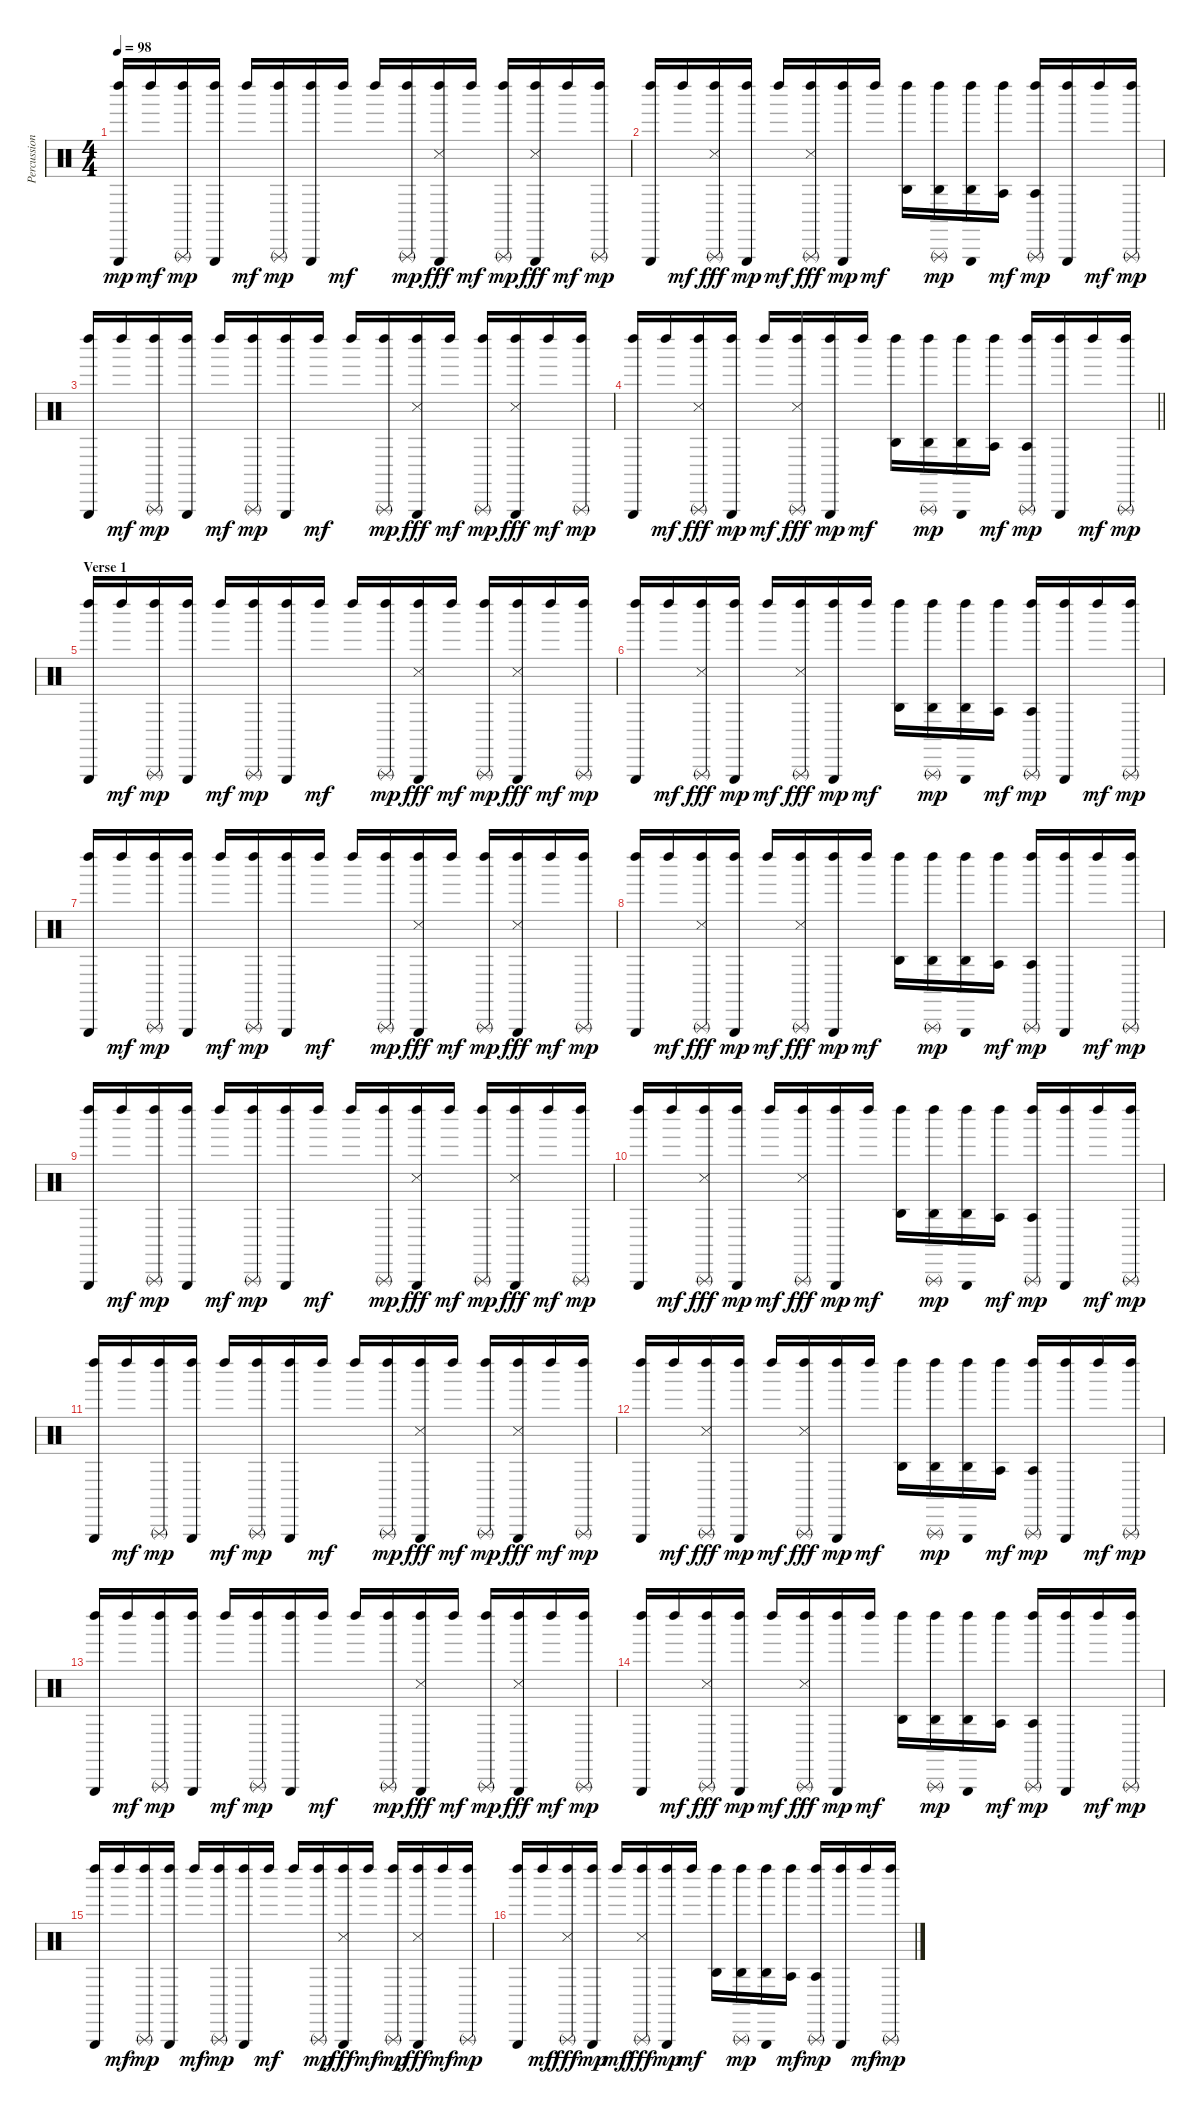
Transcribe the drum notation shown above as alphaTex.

\track ("Percussions (Dr-0)" "Percussion") {instrument percussion}
\staff {score}
\articulation defaults
\ts (4 4)
\tempo 98
\clef neutral
\ks c
("Left Maraca (hit)" "Triangle (hit)").16{dy mp} "Left Maraca (hit)".16{dy mf} ("Left Maraca (hit)" "Triangle (rnute)").16{dy mp} ("Left Maraca (hit)" "Triangle (hit)").16 "Left Maraca (hit)".16{dy mf} ("Left Maraca (hit)" "Triangle (rnute)").16{dy mp} ("Left Maraca (hit)" "Triangle (hit)").16 "Left Maraca (hit)".16{dy mf} "Left Maraca (hit)".16 ("Left Maraca (hit)" "Triangle (rnute)").16{dy mp} ("Left Maraca (hit)" "Triangle (hit)" "Snare (side stick) 3").16{dy fff} "Left Maraca (hit)".16{dy mf} ("Left Maraca (hit)" "Triangle (rnute)").16{dy mp} ("Left Maraca (hit)" "Triangle (hit)" "Snare (side stick) 3").16{dy fff} "Left Maraca (hit)".16{dy mf} ("Left Maraca (hit)" "Triangle (rnute)").16{dy mp} |
("Left Maraca (hit)" "Triangle (hit)").16 "Left Maraca (hit)".16{dy mf} ("Left Maraca (hit)" "Triangle (rnute)" "Snare (side stick) 3").16{dy fff} ("Left Maraca (hit)" "Triangle (hit)").16{dy mp} "Left Maraca (hit)".16{dy mf} ("Left Maraca (hit)" "Triangle (rnute)" "Snare (side stick) 3").16{dy fff} ("Left Maraca (hit)" "Triangle (hit)").16{dy mp} "Left Maraca (hit)".16{dy mf} ("Left Maraca (hit)" "Agogo high (hit)").16 ("Left Maraca (hit)" "Triangle (rnute)" "Agogo high (hit)").16{dy mp} ("Left Maraca (hit)" "Triangle (hit)" "Agogo high (hit)").16 ("Left Maraca (hit)" "Agogo tow (hit)").16{dy mf} ("Left Maraca (hit)" "Triangle (rnute)" "Agogo tow (hit)").16{dy mp} ("Left Maraca (hit)" "Triangle (hit)").16 "Left Maraca (hit)".16{dy mf} ("Left Maraca (hit)" "Triangle (rnute)").16{dy mp} |
("Left Maraca (hit)" "Triangle (hit)").16 "Left Maraca (hit)".16{dy mf} ("Left Maraca (hit)" "Triangle (rnute)").16{dy mp} ("Left Maraca (hit)" "Triangle (hit)").16 "Left Maraca (hit)".16{dy mf} ("Left Maraca (hit)" "Triangle (rnute)").16{dy mp} ("Left Maraca (hit)" "Triangle (hit)").16 "Left Maraca (hit)".16{dy mf} "Left Maraca (hit)".16 ("Left Maraca (hit)" "Triangle (rnute)").16{dy mp} ("Left Maraca (hit)" "Triangle (hit)" "Snare (side stick) 3").16{dy fff} "Left Maraca (hit)".16{dy mf} ("Left Maraca (hit)" "Triangle (rnute)").16{dy mp} ("Left Maraca (hit)" "Triangle (hit)" "Snare (side stick) 3").16{dy fff} "Left Maraca (hit)".16{dy mf} ("Left Maraca (hit)" "Triangle (rnute)").16{dy mp} |
\barLineRight lightlight
("Left Maraca (hit)" "Triangle (hit)").16 "Left Maraca (hit)".16{dy mf} ("Left Maraca (hit)" "Triangle (rnute)" "Snare (side stick) 3").16{dy fff} ("Left Maraca (hit)" "Triangle (hit)").16{dy mp} "Left Maraca (hit)".16{dy mf} ("Left Maraca (hit)" "Triangle (rnute)" "Snare (side stick) 3").16{dy fff} ("Left Maraca (hit)" "Triangle (hit)").16{dy mp} "Left Maraca (hit)".16{dy mf} ("Left Maraca (hit)" "Agogo high (hit)").16 ("Left Maraca (hit)" "Triangle (rnute)" "Agogo high (hit)").16{dy mp} ("Left Maraca (hit)" "Triangle (hit)" "Agogo high (hit)").16 ("Left Maraca (hit)" "Agogo tow (hit)").16{dy mf} ("Left Maraca (hit)" "Triangle (rnute)" "Agogo tow (hit)").16{dy mp} ("Left Maraca (hit)" "Triangle (hit)").16 "Left Maraca (hit)".16{dy mf} ("Left Maraca (hit)" "Triangle (rnute)").16{dy mp} |
\section ("" "Verse 1")
("Left Maraca (hit)" "Triangle (hit)").16 "Left Maraca (hit)".16{dy mf} ("Left Maraca (hit)" "Triangle (rnute)").16{dy mp} ("Left Maraca (hit)" "Triangle (hit)").16 "Left Maraca (hit)".16{dy mf} ("Left Maraca (hit)" "Triangle (rnute)").16{dy mp} ("Left Maraca (hit)" "Triangle (hit)").16 "Left Maraca (hit)".16{dy mf} "Left Maraca (hit)".16 ("Left Maraca (hit)" "Triangle (rnute)").16{dy mp} ("Left Maraca (hit)" "Triangle (hit)" "Snare (side stick) 3").16{dy fff} "Left Maraca (hit)".16{dy mf} ("Left Maraca (hit)" "Triangle (rnute)").16{dy mp} ("Left Maraca (hit)" "Triangle (hit)" "Snare (side stick) 3").16{dy fff} "Left Maraca (hit)".16{dy mf} ("Left Maraca (hit)" "Triangle (rnute)").16{dy mp} |
("Left Maraca (hit)" "Triangle (hit)").16 "Left Maraca (hit)".16{dy mf} ("Left Maraca (hit)" "Triangle (rnute)" "Snare (side stick) 3").16{dy fff} ("Left Maraca (hit)" "Triangle (hit)").16{dy mp} "Left Maraca (hit)".16{dy mf} ("Left Maraca (hit)" "Triangle (rnute)" "Snare (side stick) 3").16{dy fff} ("Left Maraca (hit)" "Triangle (hit)").16{dy mp} "Left Maraca (hit)".16{dy mf} ("Left Maraca (hit)" "Agogo high (hit)").16 ("Left Maraca (hit)" "Triangle (rnute)" "Agogo high (hit)").16{dy mp} ("Left Maraca (hit)" "Triangle (hit)" "Agogo high (hit)").16 ("Left Maraca (hit)" "Agogo tow (hit)").16{dy mf} ("Left Maraca (hit)" "Triangle (rnute)" "Agogo tow (hit)").16{dy mp} ("Left Maraca (hit)" "Triangle (hit)").16 "Left Maraca (hit)".16{dy mf} ("Left Maraca (hit)" "Triangle (rnute)").16{dy mp} |
("Left Maraca (hit)" "Triangle (hit)").16 "Left Maraca (hit)".16{dy mf} ("Left Maraca (hit)" "Triangle (rnute)").16{dy mp} ("Left Maraca (hit)" "Triangle (hit)").16 "Left Maraca (hit)".16{dy mf} ("Left Maraca (hit)" "Triangle (rnute)").16{dy mp} ("Left Maraca (hit)" "Triangle (hit)").16 "Left Maraca (hit)".16{dy mf} "Left Maraca (hit)".16 ("Left Maraca (hit)" "Triangle (rnute)").16{dy mp} ("Left Maraca (hit)" "Triangle (hit)" "Snare (side stick) 3").16{dy fff} "Left Maraca (hit)".16{dy mf} ("Left Maraca (hit)" "Triangle (rnute)").16{dy mp} ("Left Maraca (hit)" "Triangle (hit)" "Snare (side stick) 3").16{dy fff} "Left Maraca (hit)".16{dy mf} ("Left Maraca (hit)" "Triangle (rnute)").16{dy mp} |
("Left Maraca (hit)" "Triangle (hit)").16 "Left Maraca (hit)".16{dy mf} ("Left Maraca (hit)" "Triangle (rnute)" "Snare (side stick) 3").16{dy fff} ("Left Maraca (hit)" "Triangle (hit)").16{dy mp} "Left Maraca (hit)".16{dy mf} ("Left Maraca (hit)" "Triangle (rnute)" "Snare (side stick) 3").16{dy fff} ("Left Maraca (hit)" "Triangle (hit)").16{dy mp} "Left Maraca (hit)".16{dy mf} ("Left Maraca (hit)" "Agogo high (hit)").16 ("Left Maraca (hit)" "Triangle (rnute)" "Agogo high (hit)").16{dy mp} ("Left Maraca (hit)" "Triangle (hit)" "Agogo high (hit)").16 ("Left Maraca (hit)" "Agogo tow (hit)").16{dy mf} ("Left Maraca (hit)" "Triangle (rnute)" "Agogo tow (hit)").16{dy mp} ("Left Maraca (hit)" "Triangle (hit)").16 "Left Maraca (hit)".16{dy mf} ("Left Maraca (hit)" "Triangle (rnute)").16{dy mp} |
("Left Maraca (hit)" "Triangle (hit)").16 "Left Maraca (hit)".16{dy mf} ("Left Maraca (hit)" "Triangle (rnute)").16{dy mp} ("Left Maraca (hit)" "Triangle (hit)").16 "Left Maraca (hit)".16{dy mf} ("Left Maraca (hit)" "Triangle (rnute)").16{dy mp} ("Left Maraca (hit)" "Triangle (hit)").16 "Left Maraca (hit)".16{dy mf} "Left Maraca (hit)".16 ("Left Maraca (hit)" "Triangle (rnute)").16{dy mp} ("Left Maraca (hit)" "Triangle (hit)" "Snare (side stick) 3").16{dy fff} "Left Maraca (hit)".16{dy mf} ("Left Maraca (hit)" "Triangle (rnute)").16{dy mp} ("Left Maraca (hit)" "Triangle (hit)" "Snare (side stick) 3").16{dy fff} "Left Maraca (hit)".16{dy mf} ("Left Maraca (hit)" "Triangle (rnute)").16{dy mp} |
("Left Maraca (hit)" "Triangle (hit)").16 "Left Maraca (hit)".16{dy mf} ("Left Maraca (hit)" "Triangle (rnute)" "Snare (side stick) 3").16{dy fff} ("Left Maraca (hit)" "Triangle (hit)").16{dy mp} "Left Maraca (hit)".16{dy mf} ("Left Maraca (hit)" "Triangle (rnute)" "Snare (side stick) 3").16{dy fff} ("Left Maraca (hit)" "Triangle (hit)").16{dy mp} "Left Maraca (hit)".16{dy mf} ("Left Maraca (hit)" "Agogo high (hit)").16 ("Left Maraca (hit)" "Triangle (rnute)" "Agogo high (hit)").16{dy mp} ("Left Maraca (hit)" "Triangle (hit)" "Agogo high (hit)").16 ("Left Maraca (hit)" "Agogo tow (hit)").16{dy mf} ("Left Maraca (hit)" "Triangle (rnute)" "Agogo tow (hit)").16{dy mp} ("Left Maraca (hit)" "Triangle (hit)").16 "Left Maraca (hit)".16{dy mf} ("Left Maraca (hit)" "Triangle (rnute)").16{dy mp} |
("Left Maraca (hit)" "Triangle (hit)").16 "Left Maraca (hit)".16{dy mf} ("Left Maraca (hit)" "Triangle (rnute)").16{dy mp} ("Left Maraca (hit)" "Triangle (hit)").16 "Left Maraca (hit)".16{dy mf} ("Left Maraca (hit)" "Triangle (rnute)").16{dy mp} ("Left Maraca (hit)" "Triangle (hit)").16 "Left Maraca (hit)".16{dy mf} "Left Maraca (hit)".16 ("Left Maraca (hit)" "Triangle (rnute)").16{dy mp} ("Left Maraca (hit)" "Triangle (hit)" "Snare (side stick) 3").16{dy fff} "Left Maraca (hit)".16{dy mf} ("Left Maraca (hit)" "Triangle (rnute)").16{dy mp} ("Left Maraca (hit)" "Triangle (hit)" "Snare (side stick) 3").16{dy fff} "Left Maraca (hit)".16{dy mf} ("Left Maraca (hit)" "Triangle (rnute)").16{dy mp} |
("Left Maraca (hit)" "Triangle (hit)").16 "Left Maraca (hit)".16{dy mf} ("Left Maraca (hit)" "Triangle (rnute)" "Snare (side stick) 3").16{dy fff} ("Left Maraca (hit)" "Triangle (hit)").16{dy mp} "Left Maraca (hit)".16{dy mf} ("Left Maraca (hit)" "Triangle (rnute)" "Snare (side stick) 3").16{dy fff} ("Left Maraca (hit)" "Triangle (hit)").16{dy mp} "Left Maraca (hit)".16{dy mf} ("Left Maraca (hit)" "Agogo high (hit)").16 ("Left Maraca (hit)" "Triangle (rnute)" "Agogo high (hit)").16{dy mp} ("Left Maraca (hit)" "Triangle (hit)" "Agogo high (hit)").16 ("Left Maraca (hit)" "Agogo tow (hit)").16{dy mf} ("Left Maraca (hit)" "Triangle (rnute)" "Agogo tow (hit)").16{dy mp} ("Left Maraca (hit)" "Triangle (hit)").16 "Left Maraca (hit)".16{dy mf} ("Left Maraca (hit)" "Triangle (rnute)").16{dy mp} |
("Left Maraca (hit)" "Triangle (hit)").16 "Left Maraca (hit)".16{dy mf} ("Left Maraca (hit)" "Triangle (rnute)").16{dy mp} ("Left Maraca (hit)" "Triangle (hit)").16 "Left Maraca (hit)".16{dy mf} ("Left Maraca (hit)" "Triangle (rnute)").16{dy mp} ("Left Maraca (hit)" "Triangle (hit)").16 "Left Maraca (hit)".16{dy mf} "Left Maraca (hit)".16 ("Left Maraca (hit)" "Triangle (rnute)").16{dy mp} ("Left Maraca (hit)" "Triangle (hit)" "Snare (side stick) 3").16{dy fff} "Left Maraca (hit)".16{dy mf} ("Left Maraca (hit)" "Triangle (rnute)").16{dy mp} ("Left Maraca (hit)" "Triangle (hit)" "Snare (side stick) 3").16{dy fff} "Left Maraca (hit)".16{dy mf} ("Left Maraca (hit)" "Triangle (rnute)").16{dy mp} |
("Left Maraca (hit)" "Triangle (hit)").16 "Left Maraca (hit)".16{dy mf} ("Left Maraca (hit)" "Triangle (rnute)" "Snare (side stick) 3").16{dy fff} ("Left Maraca (hit)" "Triangle (hit)").16{dy mp} "Left Maraca (hit)".16{dy mf} ("Left Maraca (hit)" "Triangle (rnute)" "Snare (side stick) 3").16{dy fff} ("Left Maraca (hit)" "Triangle (hit)").16{dy mp} "Left Maraca (hit)".16{dy mf} ("Left Maraca (hit)" "Agogo high (hit)").16 ("Left Maraca (hit)" "Triangle (rnute)" "Agogo high (hit)").16{dy mp} ("Left Maraca (hit)" "Triangle (hit)" "Agogo high (hit)").16 ("Left Maraca (hit)" "Agogo tow (hit)").16{dy mf} ("Left Maraca (hit)" "Triangle (rnute)" "Agogo tow (hit)").16{dy mp} ("Left Maraca (hit)" "Triangle (hit)").16 "Left Maraca (hit)".16{dy mf} ("Left Maraca (hit)" "Triangle (rnute)").16{dy mp} |
("Left Maraca (hit)" "Triangle (hit)").16 "Left Maraca (hit)".16{dy mf} ("Left Maraca (hit)" "Triangle (rnute)").16{dy mp} ("Left Maraca (hit)" "Triangle (hit)").16 "Left Maraca (hit)".16{dy mf} ("Left Maraca (hit)" "Triangle (rnute)").16{dy mp} ("Left Maraca (hit)" "Triangle (hit)").16 "Left Maraca (hit)".16{dy mf} "Left Maraca (hit)".16 ("Left Maraca (hit)" "Triangle (rnute)").16{dy mp} ("Left Maraca (hit)" "Triangle (hit)" "Snare (side stick) 3").16{dy fff} "Left Maraca (hit)".16{dy mf} ("Left Maraca (hit)" "Triangle (rnute)").16{dy mp} ("Left Maraca (hit)" "Triangle (hit)" "Snare (side stick) 3").16{dy fff} "Left Maraca (hit)".16{dy mf} ("Left Maraca (hit)" "Triangle (rnute)").16{dy mp} |
("Left Maraca (hit)" "Triangle (hit)").16 "Left Maraca (hit)".16{dy mf} ("Left Maraca (hit)" "Triangle (rnute)" "Snare (side stick) 3").16{dy fff} ("Left Maraca (hit)" "Triangle (hit)").16{dy mp} "Left Maraca (hit)".16{dy mf} ("Left Maraca (hit)" "Triangle (rnute)" "Snare (side stick) 3").16{dy fff} ("Left Maraca (hit)" "Triangle (hit)").16{dy mp} "Left Maraca (hit)".16{dy mf} ("Left Maraca (hit)" "Agogo high (hit)").16 ("Left Maraca (hit)" "Triangle (rnute)" "Agogo high (hit)").16{dy mp} ("Left Maraca (hit)" "Triangle (hit)" "Agogo high (hit)").16 ("Left Maraca (hit)" "Agogo tow (hit)").16{dy mf} ("Left Maraca (hit)" "Triangle (rnute)" "Agogo tow (hit)").16{dy mp} ("Left Maraca (hit)" "Triangle (hit)").16 "Left Maraca (hit)".16{dy mf} ("Left Maraca (hit)" "Triangle (rnute)").16{dy mp}
